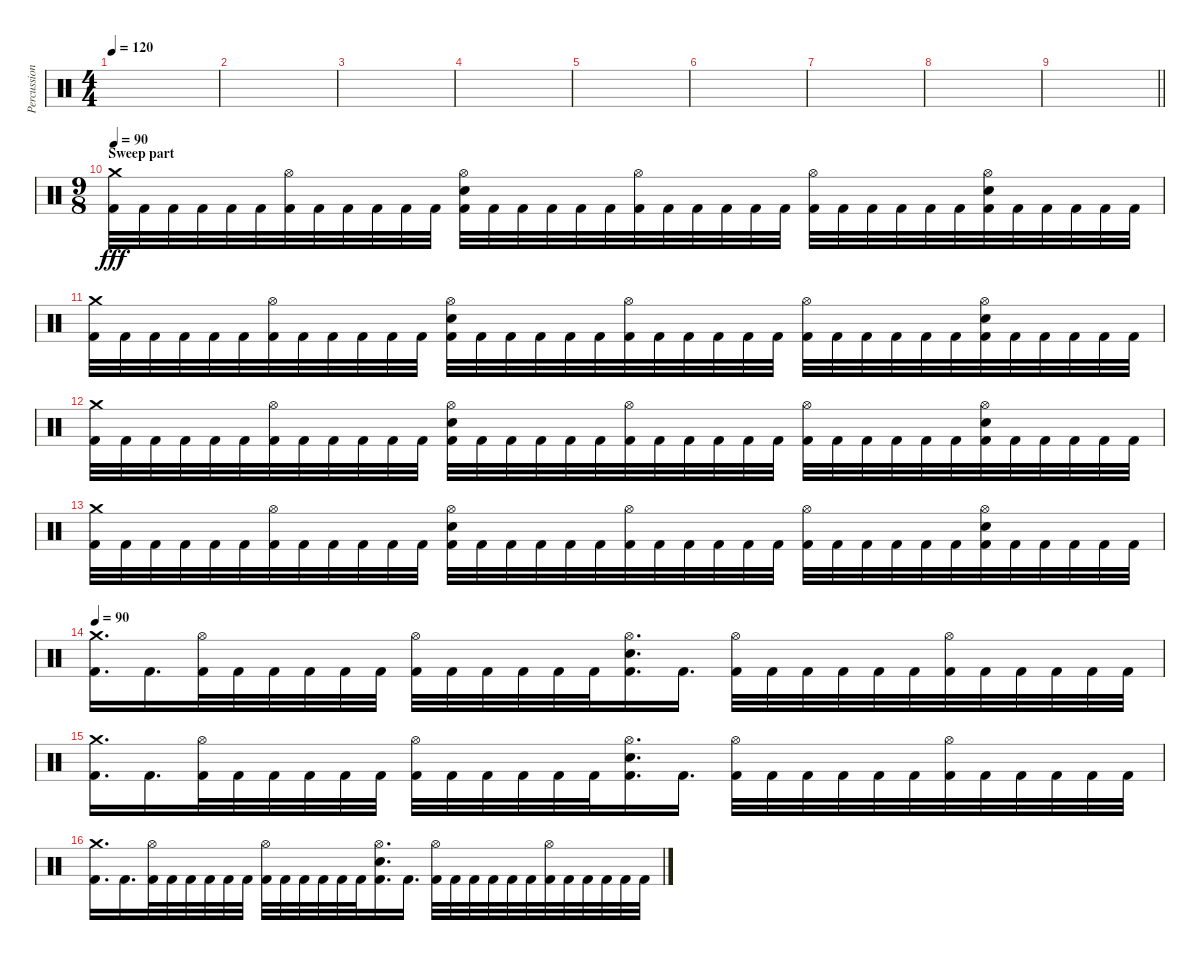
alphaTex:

\track ("Percussion" "Percussion") {instrument percussion}
\staff {score}
\articulation defaults
\ts (4 4)
\tempo 120
\clef neutral
\ks c
|
|
|
|
|
|
|
|
\barLineRight lightlight
|
\ts (9 8)
\section ("" "Sweep part")
\tempo 90
("Crash medium (hit)" "Kick (hit) 2").32{dy fff} "Kick (hit) 2".32 "Kick (hit) 2".32 "Kick (hit) 2".32 "Kick (hit) 2".32 "Kick (hit) 2".32 ("Hi-Hat (open)" "Kick (hit) 2").32 "Kick (hit) 2".32 "Kick (hit) 2".32 "Kick (hit) 2".32 "Kick (hit) 2".32 "Kick (hit) 2".32 ("Hi-Hat (open)" "Electric Snare (hit)" "Kick (hit) 2").32 "Kick (hit) 2".32 "Kick (hit) 2".32 "Kick (hit) 2".32 "Kick (hit) 2".32 "Kick (hit) 2".32 ("Hi-Hat (open)" "Kick (hit) 2").32 "Kick (hit) 2".32 "Kick (hit) 2".32 "Kick (hit) 2".32 "Kick (hit) 2".32 "Kick (hit) 2".32 ("Hi-Hat (open)" "Kick (hit) 2").32 "Kick (hit) 2".32 "Kick (hit) 2".32 "Kick (hit) 2".32 "Kick (hit) 2".32 "Kick (hit) 2".32 ("Hi-Hat (open)" "Electric Snare (hit)" "Kick (hit) 2").32 "Kick (hit) 2".32 "Kick (hit) 2".32 "Kick (hit) 2".32 "Kick (hit) 2".32 "Kick (hit) 2".32 |
("Crash medium (hit)" "Kick (hit) 2").32 "Kick (hit) 2".32 "Kick (hit) 2".32 "Kick (hit) 2".32 "Kick (hit) 2".32 "Kick (hit) 2".32 ("Hi-Hat (open)" "Kick (hit) 2").32 "Kick (hit) 2".32 "Kick (hit) 2".32 "Kick (hit) 2".32 "Kick (hit) 2".32 "Kick (hit) 2".32 ("Hi-Hat (open)" "Electric Snare (hit)" "Kick (hit) 2").32 "Kick (hit) 2".32 "Kick (hit) 2".32 "Kick (hit) 2".32 "Kick (hit) 2".32 "Kick (hit) 2".32 ("Hi-Hat (open)" "Kick (hit) 2").32 "Kick (hit) 2".32 "Kick (hit) 2".32 "Kick (hit) 2".32 "Kick (hit) 2".32 "Kick (hit) 2".32 ("Hi-Hat (open)" "Kick (hit) 2").32 "Kick (hit) 2".32 "Kick (hit) 2".32 "Kick (hit) 2".32 "Kick (hit) 2".32 "Kick (hit) 2".32 ("Hi-Hat (open)" "Electric Snare (hit)" "Kick (hit) 2").32 "Kick (hit) 2".32 "Kick (hit) 2".32 "Kick (hit) 2".32 "Kick (hit) 2".32 "Kick (hit) 2".32 |
("Crash medium (hit)" "Kick (hit) 2").32 "Kick (hit) 2".32 "Kick (hit) 2".32 "Kick (hit) 2".32 "Kick (hit) 2".32 "Kick (hit) 2".32 ("Hi-Hat (open)" "Kick (hit) 2").32 "Kick (hit) 2".32 "Kick (hit) 2".32 "Kick (hit) 2".32 "Kick (hit) 2".32 "Kick (hit) 2".32 ("Hi-Hat (open)" "Electric Snare (hit)" "Kick (hit) 2").32 "Kick (hit) 2".32 "Kick (hit) 2".32 "Kick (hit) 2".32 "Kick (hit) 2".32 "Kick (hit) 2".32 ("Hi-Hat (open)" "Kick (hit) 2").32 "Kick (hit) 2".32 "Kick (hit) 2".32 "Kick (hit) 2".32 "Kick (hit) 2".32 "Kick (hit) 2".32 ("Hi-Hat (open)" "Kick (hit) 2").32 "Kick (hit) 2".32 "Kick (hit) 2".32 "Kick (hit) 2".32 "Kick (hit) 2".32 "Kick (hit) 2".32 ("Hi-Hat (open)" "Electric Snare (hit)" "Kick (hit) 2").32 "Kick (hit) 2".32 "Kick (hit) 2".32 "Kick (hit) 2".32 "Kick (hit) 2".32 "Kick (hit) 2".32 |
("Crash medium (hit)" "Kick (hit) 2").32 "Kick (hit) 2".32 "Kick (hit) 2".32 "Kick (hit) 2".32 "Kick (hit) 2".32 "Kick (hit) 2".32 ("Hi-Hat (open)" "Kick (hit) 2").32 "Kick (hit) 2".32 "Kick (hit) 2".32 "Kick (hit) 2".32 "Kick (hit) 2".32 "Kick (hit) 2".32 ("Hi-Hat (open)" "Electric Snare (hit)" "Kick (hit) 2").32 "Kick (hit) 2".32 "Kick (hit) 2".32 "Kick (hit) 2".32 "Kick (hit) 2".32 "Kick (hit) 2".32 ("Hi-Hat (open)" "Kick (hit) 2").32 "Kick (hit) 2".32 "Kick (hit) 2".32 "Kick (hit) 2".32 "Kick (hit) 2".32 "Kick (hit) 2".32 ("Hi-Hat (open)" "Kick (hit) 2").32 "Kick (hit) 2".32 "Kick (hit) 2".32 "Kick (hit) 2".32 "Kick (hit) 2".32 "Kick (hit) 2".32 ("Hi-Hat (open)" "Electric Snare (hit)" "Kick (hit) 2").32 "Kick (hit) 2".32 "Kick (hit) 2".32 "Kick (hit) 2".32 "Kick (hit) 2".32 "Kick (hit) 2".32 |
\tempo 90
("Crash medium (hit)" "Kick (hit) 2").16{d} "Kick (hit) 2".16{d} ("Hi-Hat (open)" "Kick (hit) 2").32 "Kick (hit) 2".32 "Kick (hit) 2".32 "Kick (hit) 2".32 "Kick (hit) 2".32 "Kick (hit) 2".32 ("Hi-Hat (open)" "Kick (hit) 2").32 "Kick (hit) 2".32 "Kick (hit) 2".32 "Kick (hit) 2".32 "Kick (hit) 2".32 "Kick (hit) 2".32 ("Hi-Hat (open)" "Electric Snare (hit)" "Kick (hit) 2").16{d} "Kick (hit) 2".16{d} ("Hi-Hat (open)" "Kick (hit) 2").32 "Kick (hit) 2".32 "Kick (hit) 2".32 "Kick (hit) 2".32 "Kick (hit) 2".32 "Kick (hit) 2".32 ("Hi-Hat (open)" "Kick (hit) 2").32 "Kick (hit) 2".32 "Kick (hit) 2".32 "Kick (hit) 2".32 "Kick (hit) 2".32 "Kick (hit) 2".32 |
("Crash medium (hit)" "Kick (hit) 2").16{d} "Kick (hit) 2".16{d} ("Hi-Hat (open)" "Kick (hit) 2").32 "Kick (hit) 2".32 "Kick (hit) 2".32 "Kick (hit) 2".32 "Kick (hit) 2".32 "Kick (hit) 2".32 ("Hi-Hat (open)" "Kick (hit) 2").32 "Kick (hit) 2".32 "Kick (hit) 2".32 "Kick (hit) 2".32 "Kick (hit) 2".32 "Kick (hit) 2".32 ("Hi-Hat (open)" "Electric Snare (hit)" "Kick (hit) 2").16{d} "Kick (hit) 2".16{d} ("Hi-Hat (open)" "Kick (hit) 2").32 "Kick (hit) 2".32 "Kick (hit) 2".32 "Kick (hit) 2".32 "Kick (hit) 2".32 "Kick (hit) 2".32 ("Hi-Hat (open)" "Kick (hit) 2").32 "Kick (hit) 2".32 "Kick (hit) 2".32 "Kick (hit) 2".32 "Kick (hit) 2".32 "Kick (hit) 2".32 |
("Crash medium (hit)" "Kick (hit) 2").16{d} "Kick (hit) 2".16{d} ("Hi-Hat (open)" "Kick (hit) 2").32 "Kick (hit) 2".32 "Kick (hit) 2".32 "Kick (hit) 2".32 "Kick (hit) 2".32 "Kick (hit) 2".32 ("Hi-Hat (open)" "Kick (hit) 2").32 "Kick (hit) 2".32 "Kick (hit) 2".32 "Kick (hit) 2".32 "Kick (hit) 2".32 "Kick (hit) 2".32 ("Hi-Hat (open)" "Electric Snare (hit)" "Kick (hit) 2").16{d} "Kick (hit) 2".16{d} ("Hi-Hat (open)" "Kick (hit) 2").32 "Kick (hit) 2".32 "Kick (hit) 2".32 "Kick (hit) 2".32 "Kick (hit) 2".32 "Kick (hit) 2".32 ("Hi-Hat (open)" "Kick (hit) 2").32 "Kick (hit) 2".32 "Kick (hit) 2".32 "Kick (hit) 2".32 "Kick (hit) 2".32 "Kick (hit) 2".32
